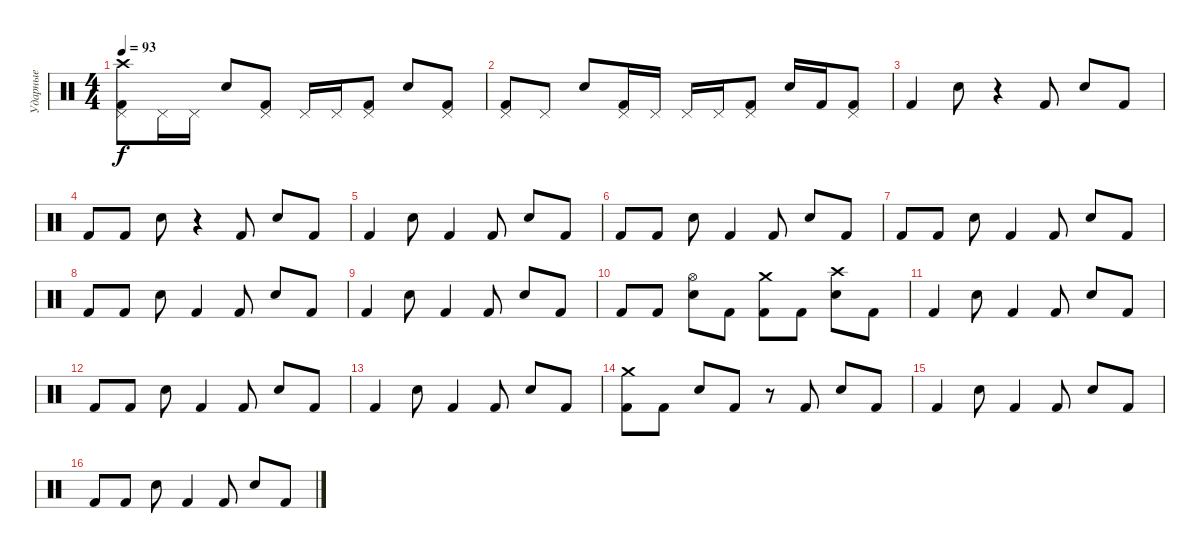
\track ("Ударные" "Ударные") {instrument percussion}
\staff {score}
\articulation defaults
\ts (4 4)
\tempo 93
\clef neutral
\ks c
("Crash high (hit)" "Pedal Hi-Hat (hit)" "Kick (hit) 2").8{dy f} "Pedal Hi-Hat (hit)".16 "Pedal Hi-Hat (hit)".16 "Snare (hit) 2".8 ("Pedal Hi-Hat (hit)" "Kick (hit) 2").8 "Pedal Hi-Hat (hit)".16 "Pedal Hi-Hat (hit)".16 ("Pedal Hi-Hat (hit)" "Kick (hit) 2").8 "Snare (hit) 2".8 ("Pedal Hi-Hat (hit)" "Kick (hit) 2").8 |
("Pedal Hi-Hat (hit)" "Kick (hit) 2").8 "Pedal Hi-Hat (hit)".8 "Snare (hit) 2".8 ("Pedal Hi-Hat (hit)" "Kick (hit) 2").16 "Pedal Hi-Hat (hit)".16 "Pedal Hi-Hat (hit)".16 "Pedal Hi-Hat (hit)".16 ("Pedal Hi-Hat (hit)" "Kick (hit) 2").8 "Snare (hit) 2".16 "Kick (hit) 2".16 ("Pedal Hi-Hat (hit)" "Kick (hit) 2").8 |
"Kick (hit) 2".4 "Snare (hit) 2".8 r.4 "Kick (hit) 2".8 "Snare (hit) 2".8 "Kick (hit) 2".8 |
"Kick (hit) 2".8 "Kick (hit) 2".8 "Snare (hit) 2".8 r.4 "Kick (hit) 2".8 "Snare (hit) 2".8 "Kick (hit) 2".8 |
"Kick (hit) 2".4 "Snare (hit) 2".8 "Kick (hit) 2".4 "Kick (hit) 2".8 "Snare (hit) 2".8 "Kick (hit) 2".8 |
"Kick (hit) 2".8 "Kick (hit) 2".8 "Snare (hit) 2".8 "Kick (hit) 2".4 "Kick (hit) 2".8 "Snare (hit) 2".8 "Kick (hit) 2".8 |
"Kick (hit) 2".8 "Kick (hit) 2".8 "Snare (hit) 2".8 "Kick (hit) 2".4 "Kick (hit) 2".8 "Snare (hit) 2".8 "Kick (hit) 2".8 |
"Kick (hit) 2".8 "Kick (hit) 2".8 "Snare (hit) 2".8 "Kick (hit) 2".4 "Kick (hit) 2".8 "Snare (hit) 2".8 "Kick (hit) 2".8 |
"Kick (hit) 2".4 "Snare (hit) 2".8 "Kick (hit) 2".4 "Kick (hit) 2".8 "Snare (hit) 2".8 "Kick (hit) 2".8 |
"Kick (hit) 2".8 "Kick (hit) 2".8 ("Hi-Hat (open)" "Snare (hit) 2").8 "Kick (hit) 2".8 ("Crash medium (hit)" "Kick (hit) 2").8 "Kick (hit) 2".8 ("Crash high (hit)" "Snare (hit) 2").8 "Kick (hit) 2".8 |
"Kick (hit) 2".4 "Snare (hit) 2".8 "Kick (hit) 2".4 "Kick (hit) 2".8 "Snare (hit) 2".8 "Kick (hit) 2".8 |
"Kick (hit) 2".8 "Kick (hit) 2".8 "Snare (hit) 2".8 "Kick (hit) 2".4 "Kick (hit) 2".8 "Snare (hit) 2".8 "Kick (hit) 2".8 |
"Kick (hit) 2".4 "Snare (hit) 2".8 "Kick (hit) 2".4 "Kick (hit) 2".8 "Snare (hit) 2".8 "Kick (hit) 2".8 |
("Crash medium (hit)" "Kick (hit) 2").8 "Kick (hit) 2".8 "Snare (hit) 2".8 "Kick (hit) 2".8 r.8 "Kick (hit) 2".8 "Snare (hit) 2".8 "Kick (hit) 2".8 |
"Kick (hit) 2".4 "Snare (hit) 2".8 "Kick (hit) 2".4 "Kick (hit) 2".8 "Snare (hit) 2".8 "Kick (hit) 2".8 |
"Kick (hit) 2".8 "Kick (hit) 2".8 "Snare (hit) 2".8 "Kick (hit) 2".4 "Kick (hit) 2".8 "Snare (hit) 2".8 "Kick (hit) 2".8
